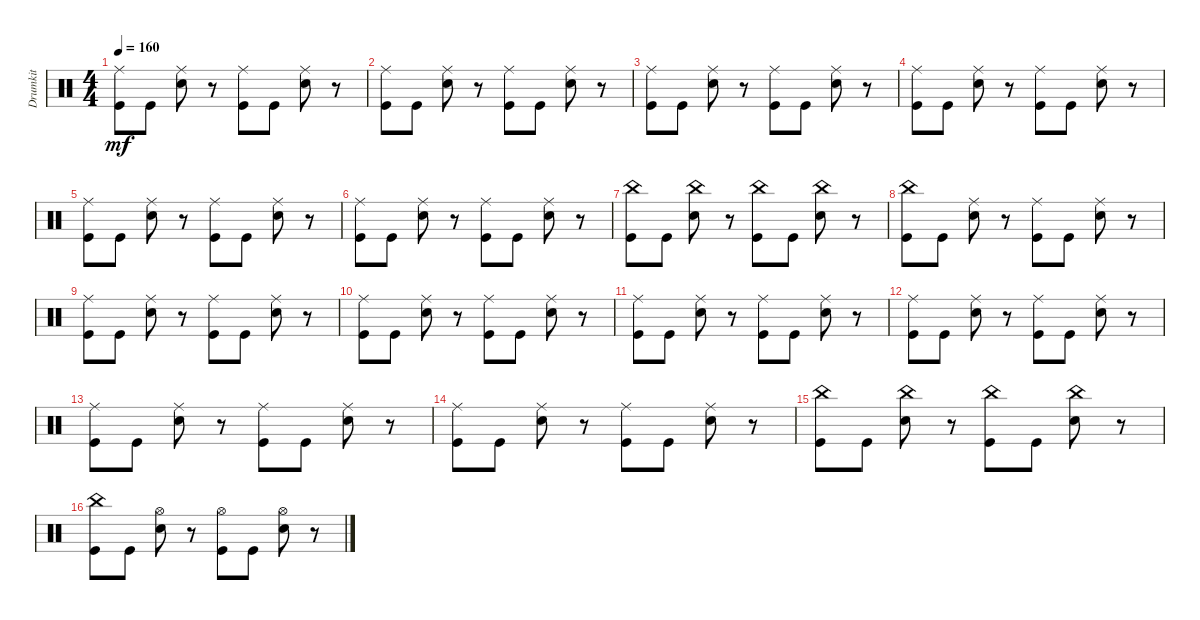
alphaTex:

\track ("Drumkit" "Drumkit") {instrument percussion}
\staff {score}
\articulation defaults
\ts (4 4)
\tempo 160
\clef neutral
\ks c
("Kick (hit)" "Ride (middle)").8{dy mf} "Kick (hit)".8 ("Snare (hit) 2" "Ride (middle)").8 r.8 ("Kick (hit)" "Ride (middle)").8 "Kick (hit)".8 ("Snare (hit) 2" "Ride (middle)").8 r.8 |
("Kick (hit)" "Ride (middle)").8 "Kick (hit)".8 ("Snare (hit) 2" "Ride (middle)").8 r.8 ("Kick (hit)" "Ride (middle)").8 "Kick (hit)".8 ("Snare (hit) 2" "Ride (middle)").8 r.8 |
("Kick (hit)" "Ride (middle)").8 "Kick (hit)".8 ("Snare (hit) 2" "Ride (middle)").8 r.8 ("Kick (hit)" "Ride (middle)").8 "Kick (hit)".8 ("Snare (hit) 2" "Ride (middle)").8 r.8 |
("Kick (hit)" "Ride (middle)").8 "Kick (hit)".8 ("Snare (hit) 2" "Ride (middle)").8 r.8 ("Kick (hit)" "Ride (middle)").8 "Kick (hit)".8 ("Snare (hit) 2" "Ride (middle)").8 r.8 |
("Kick (hit)" "Ride (middle)").8 "Kick (hit)".8 ("Snare (hit) 2" "Ride (middle)").8 r.8 ("Kick (hit)" "Ride (middle)").8 "Kick (hit)".8 ("Snare (hit) 2" "Ride (middle)").8 r.8 |
("Kick (hit)" "Ride (middle)").8 "Kick (hit)".8 ("Snare (hit) 2" "Ride (middle)").8 r.8 ("Kick (hit)" "Ride (middle)").8 "Kick (hit)".8 ("Snare (hit) 2" "Ride (middle)").8 r.8 |
("Kick (hit)" "China (hit)").8 "Kick (hit)".8 ("Snare (hit) 2" "China (hit)").8 r.8 ("Kick (hit)" "China (hit)").8 "Kick (hit)".8 ("Snare (hit) 2" "China (hit)").8 r.8 |
("Kick (hit)" "China (hit)").8 "Kick (hit)".8 ("Snare (hit) 2" "Ride (middle)").8 r.8 ("Kick (hit)" "Ride (middle)").8 "Kick (hit)".8 ("Snare (hit) 2" "Ride (middle)").8 r.8 |
("Kick (hit)" "Ride (middle)").8 "Kick (hit)".8 ("Snare (hit) 2" "Ride (middle)").8 r.8 ("Kick (hit)" "Ride (middle)").8 "Kick (hit)".8 ("Snare (hit) 2" "Ride (middle)").8 r.8 |
("Kick (hit)" "Ride (middle)").8 "Kick (hit)".8 ("Snare (hit) 2" "Ride (middle)").8 r.8 ("Kick (hit)" "Ride (middle)").8 "Kick (hit)".8 ("Snare (hit) 2" "Ride (middle)").8 r.8 |
("Kick (hit)" "Ride (middle)").8 "Kick (hit)".8 ("Snare (hit) 2" "Ride (middle)").8 r.8 ("Kick (hit)" "Ride (middle)").8 "Kick (hit)".8 ("Snare (hit) 2" "Ride (middle)").8 r.8 |
("Kick (hit)" "Ride (middle)").8 "Kick (hit)".8 ("Snare (hit) 2" "Ride (middle)").8 r.8 ("Kick (hit)" "Ride (middle)").8 "Kick (hit)".8 ("Snare (hit) 2" "Ride (middle)").8 r.8 |
("Kick (hit)" "Ride (middle)").8 "Kick (hit)".8 ("Snare (hit) 2" "Ride (middle)").8 r.8 ("Kick (hit)" "Ride (middle)").8 "Kick (hit)".8 ("Snare (hit) 2" "Ride (middle)").8 r.8 |
("Kick (hit)" "Ride (middle)").8 "Kick (hit)".8 ("Snare (hit) 2" "Ride (middle)").8 r.8 ("Kick (hit)" "Ride (middle)").8 "Kick (hit)".8 ("Snare (hit) 2" "Ride (middle)").8 r.8 |
("Kick (hit)" "China (hit)").8 "Kick (hit)".8 ("Snare (hit) 2" "China (hit)").8 r.8 ("Kick (hit)" "China (hit)").8 "Kick (hit)".8 ("Snare (hit) 2" "China (hit)").8 r.8 |
("Kick (hit)" "China (hit)").8 "Kick (hit)".8 ("Snare (hit) 2" "Hi-Hat (open)").8 r.8 ("Kick (hit)" "Hi-Hat (open)").8 "Kick (hit)".8 ("Snare (hit) 2" "Hi-Hat (open)").8 r.8
